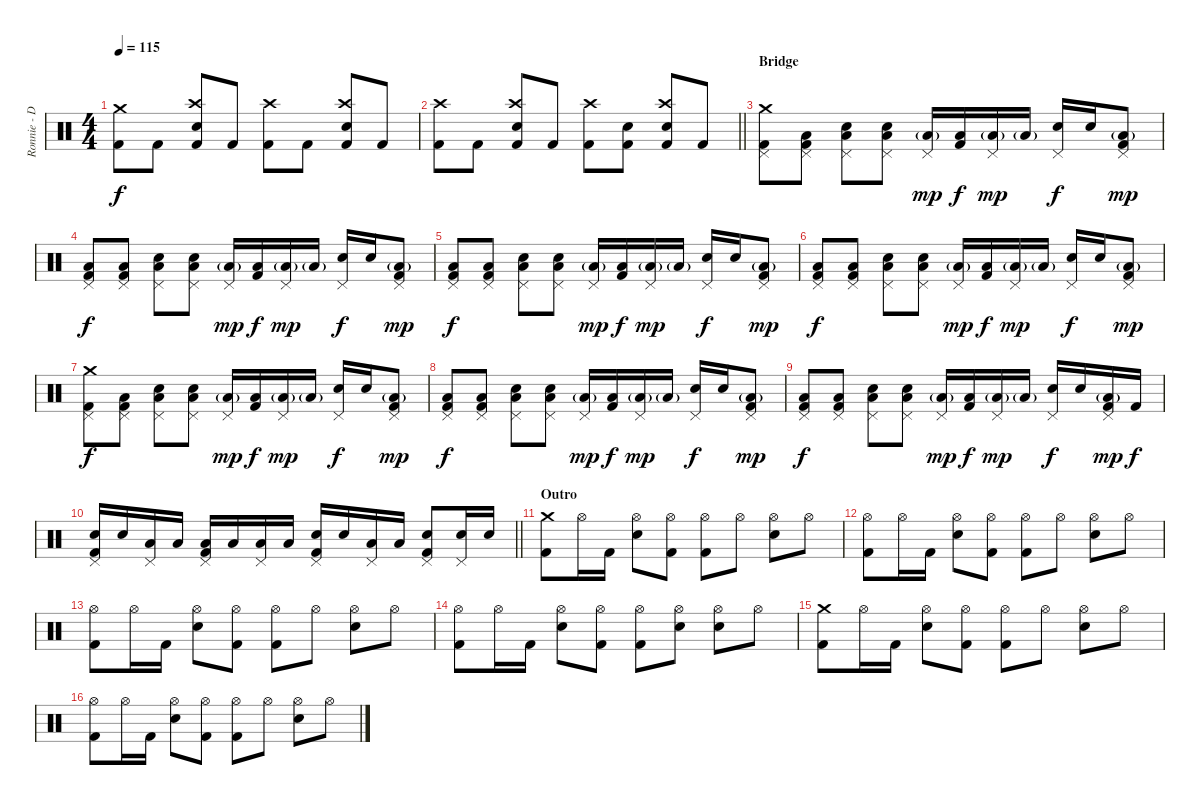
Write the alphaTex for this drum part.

\track ("Ronnie - Drums" "Ronnie - D") {instrument percussion}
\staff {score}
\articulation defaults
\ts (4 4)
\tempo 115
\clef neutral
\ks c
("Crash medium (hit)" "Kick (hit) 2").8{dy f} "Kick (hit) 2".8 ("Crash high (hit)" "Electric Snare (hit)" "Kick (hit) 2").8 "Kick (hit) 2".8 ("Crash high (hit)" "Kick (hit) 2").8 "Kick (hit) 2".8 ("Crash high (hit)" "Electric Snare (hit)" "Kick (hit) 2").8 "Kick (hit) 2".8 |
\barLineRight lightlight
("Crash high (hit)" "Kick (hit) 2").8 "Kick (hit) 2".8 ("Crash high (hit)" "Electric Snare (hit)" "Kick (hit) 2").8 "Kick (hit) 2".8 ("Crash high (hit)" "Kick (hit) 2").8 ("Electric Snare (hit)" "Kick (hit) 2").8 ("Crash high (hit)" "Electric Snare (hit)" "Kick (hit) 2").8 "Kick (hit) 2".8 |
\section ("" "Bridge")
("Pedal Hi-Hat (hit)" "Crash medium (hit)" "Kick (hit) 2").8 ("Pedal Hi-Hat (hit)" "Low Floor Tom (hit)" "Kick (hit) 2").8 ("Pedal Hi-Hat (hit)" "Low Floor Tom (hit)" "Electric Snare (hit)").8 ("Pedal Hi-Hat (hit)" "Low Floor Tom (hit)" "Electric Snare (hit)").8 ("Pedal Hi-Hat (hit)" "Low Floor Tom (hit)"{g}).16{dy mp} ("Low Tom (hit)" "Kick (hit) 2").16{dy f} ("Pedal Hi-Hat (hit)" "Low Tom (hit)"{g}).16{dy mp} "Low Tom (hit)"{g}.16 ("Pedal Hi-Hat (hit)" "Electric Snare (hit)").16{dy f} "Electric Snare (hit)".16 ("Pedal Hi-Hat (hit)" "Low Floor Tom (hit)"{g} "Kick (hit) 2").8{dy mp} |
("Pedal Hi-Hat (hit)" "Low Floor Tom (hit)" "Kick (hit) 2").8{dy f} ("Pedal Hi-Hat (hit)" "Low Floor Tom (hit)" "Kick (hit) 2").8 ("Pedal Hi-Hat (hit)" "Low Floor Tom (hit)" "Electric Snare (hit)").8 ("Pedal Hi-Hat (hit)" "Low Floor Tom (hit)" "Electric Snare (hit)").8 ("Pedal Hi-Hat (hit)" "Low Floor Tom (hit)"{g}).16{dy mp} ("Low Tom (hit)" "Kick (hit) 2").16{dy f} ("Pedal Hi-Hat (hit)" "Low Tom (hit)"{g}).16{dy mp} "Low Tom (hit)"{g}.16 ("Pedal Hi-Hat (hit)" "Electric Snare (hit)").16{dy f} "Electric Snare (hit)".16 ("Pedal Hi-Hat (hit)" "Low Floor Tom (hit)"{g} "Kick (hit) 2").8{dy mp} |
("Pedal Hi-Hat (hit)" "Low Floor Tom (hit)" "Kick (hit) 2").8{dy f} ("Pedal Hi-Hat (hit)" "Low Floor Tom (hit)" "Kick (hit) 2").8 ("Pedal Hi-Hat (hit)" "Low Floor Tom (hit)" "Electric Snare (hit)").8 ("Pedal Hi-Hat (hit)" "Low Floor Tom (hit)" "Electric Snare (hit)").8 ("Pedal Hi-Hat (hit)" "Low Floor Tom (hit)"{g}).16{dy mp} ("Low Tom (hit)" "Kick (hit) 2").16{dy f} ("Pedal Hi-Hat (hit)" "Low Tom (hit)"{g}).16{dy mp} "Low Tom (hit)"{g}.16 ("Pedal Hi-Hat (hit)" "Electric Snare (hit)").16{dy f} "Electric Snare (hit)".16 ("Pedal Hi-Hat (hit)" "Low Floor Tom (hit)"{g} "Kick (hit) 2").8{dy mp} |
("Pedal Hi-Hat (hit)" "Low Floor Tom (hit)" "Kick (hit) 2").8{dy f} ("Pedal Hi-Hat (hit)" "Low Floor Tom (hit)" "Kick (hit) 2").8 ("Pedal Hi-Hat (hit)" "Low Floor Tom (hit)" "Electric Snare (hit)").8 ("Pedal Hi-Hat (hit)" "Low Floor Tom (hit)" "Electric Snare (hit)").8 ("Pedal Hi-Hat (hit)" "Low Floor Tom (hit)"{g}).16{dy mp} ("Low Tom (hit)" "Kick (hit) 2").16{dy f} ("Pedal Hi-Hat (hit)" "Low Tom (hit)"{g}).16{dy mp} "Low Tom (hit)"{g}.16 ("Pedal Hi-Hat (hit)" "Electric Snare (hit)").16{dy f} "Electric Snare (hit)".16 ("Pedal Hi-Hat (hit)" "Low Floor Tom (hit)"{g} "Kick (hit) 2").8{dy mp} |
("Pedal Hi-Hat (hit)" "Crash medium (hit)" "Kick (hit) 2").8{dy f} ("Pedal Hi-Hat (hit)" "Low Floor Tom (hit)" "Kick (hit) 2").8 ("Pedal Hi-Hat (hit)" "Low Floor Tom (hit)" "Electric Snare (hit)").8 ("Pedal Hi-Hat (hit)" "Low Floor Tom (hit)" "Electric Snare (hit)").8 ("Pedal Hi-Hat (hit)" "Low Floor Tom (hit)"{g}).16{dy mp} ("Low Tom (hit)" "Kick (hit) 2").16{dy f} ("Pedal Hi-Hat (hit)" "Low Tom (hit)"{g}).16{dy mp} "Low Tom (hit)"{g}.16 ("Pedal Hi-Hat (hit)" "Electric Snare (hit)").16{dy f} "Electric Snare (hit)".16 ("Pedal Hi-Hat (hit)" "Low Floor Tom (hit)"{g} "Kick (hit) 2").8{dy mp} |
("Pedal Hi-Hat (hit)" "Low Floor Tom (hit)" "Kick (hit) 2").8{dy f} ("Pedal Hi-Hat (hit)" "Low Floor Tom (hit)" "Kick (hit) 2").8 ("Pedal Hi-Hat (hit)" "Low Floor Tom (hit)" "Electric Snare (hit)").8 ("Pedal Hi-Hat (hit)" "Low Floor Tom (hit)" "Electric Snare (hit)").8 ("Pedal Hi-Hat (hit)" "Low Floor Tom (hit)"{g}).16{dy mp} ("Low Tom (hit)" "Kick (hit) 2").16{dy f} ("Pedal Hi-Hat (hit)" "Low Tom (hit)"{g}).16{dy mp} "Low Tom (hit)"{g}.16 ("Pedal Hi-Hat (hit)" "Electric Snare (hit)").16{dy f} "Electric Snare (hit)".16 ("Pedal Hi-Hat (hit)" "Low Floor Tom (hit)"{g} "Kick (hit) 2").8{dy mp} |
("Pedal Hi-Hat (hit)" "Low Floor Tom (hit)" "Kick (hit) 2").8{dy f} ("Pedal Hi-Hat (hit)" "Low Floor Tom (hit)" "Kick (hit) 2").8 ("Pedal Hi-Hat (hit)" "Low Floor Tom (hit)" "Electric Snare (hit)").8 ("Pedal Hi-Hat (hit)" "Low Floor Tom (hit)" "Electric Snare (hit)").8 ("Pedal Hi-Hat (hit)" "Low Floor Tom (hit)"{g}).16{dy mp} ("Low Tom (hit)" "Kick (hit) 2").16{dy f} ("Pedal Hi-Hat (hit)" "Low Tom (hit)"{g}).16{dy mp} "Low Tom (hit)"{g}.16 ("Pedal Hi-Hat (hit)" "Electric Snare (hit)").16{dy f} "Electric Snare (hit)".16 ("Pedal Hi-Hat (hit)" "Low Floor Tom (hit)"{g} "Kick (hit) 2").16{dy mp} "Kick (hit) 2".16{dy f} |
\barLineRight lightlight
("Pedal Hi-Hat (hit)" "Electric Snare (hit)" "Kick (hit) 2").16 "Electric Snare (hit)".16 ("Pedal Hi-Hat (hit)" "Low Floor Tom (hit)").16 "Low Tom (hit)".16 ("Pedal Hi-Hat (hit)" "Low Floor Tom (hit)" "Kick (hit) 2").16 "Low Floor Tom (hit)".16 ("Pedal Hi-Hat (hit)" "Low Floor Tom (hit)").16 "Low Floor Tom (hit)".16 ("Pedal Hi-Hat (hit)" "Electric Snare (hit)" "Kick (hit) 2").16 "Electric Snare (hit)".16 ("Pedal Hi-Hat (hit)" "Low Floor Tom (hit)").16 "Low Floor Tom (hit)".16 ("Pedal Hi-Hat (hit)" "Electric Snare (hit)" "Kick (hit) 2").8 ("Pedal Hi-Hat (hit)" "Electric Snare (hit)").16 "Electric Snare (hit)".16 |
\section ("" "Outro")
("Crash medium (hit)" "Kick (hit) 2").8 "Hi-Hat (open)".16 "Kick (hit) 2".16 ("Hi-Hat (open)" "Electric Snare (hit)").8 ("Hi-Hat (open)" "Kick (hit) 2").8 ("Hi-Hat (open)" "Kick (hit) 2").8 "Hi-Hat (open)".8 ("Hi-Hat (open)" "Electric Snare (hit)").8 "Hi-Hat (open)".8 |
("Hi-Hat (open)" "Kick (hit) 2").8 "Hi-Hat (open)".16 "Kick (hit) 2".16 ("Hi-Hat (open)" "Electric Snare (hit)").8 ("Hi-Hat (open)" "Kick (hit) 2").8 ("Hi-Hat (open)" "Kick (hit) 2").8 "Hi-Hat (open)".8 ("Hi-Hat (open)" "Electric Snare (hit)").8 "Hi-Hat (open)".8 |
("Hi-Hat (open)" "Kick (hit) 2").8 "Hi-Hat (open)".16 "Kick (hit) 2".16 ("Hi-Hat (open)" "Electric Snare (hit)").8 ("Hi-Hat (open)" "Kick (hit) 2").8 ("Hi-Hat (open)" "Kick (hit) 2").8 "Hi-Hat (open)".8 ("Hi-Hat (open)" "Electric Snare (hit)").8 "Hi-Hat (open)".8 |
("Hi-Hat (open)" "Kick (hit) 2").8 "Hi-Hat (open)".16 "Kick (hit) 2".16 ("Hi-Hat (open)" "Electric Snare (hit)").8 ("Hi-Hat (open)" "Kick (hit) 2").8 ("Hi-Hat (open)" "Kick (hit) 2").8 ("Hi-Hat (open)" "Electric Snare (hit)").8 ("Hi-Hat (open)" "Electric Snare (hit)").8 "Hi-Hat (open)".8 |
("Crash medium (hit)" "Kick (hit) 2").8 "Hi-Hat (open)".16 "Kick (hit) 2".16 ("Hi-Hat (open)" "Electric Snare (hit)").8 ("Hi-Hat (open)" "Kick (hit) 2").8 ("Hi-Hat (open)" "Kick (hit) 2").8 "Hi-Hat (open)".8 ("Hi-Hat (open)" "Electric Snare (hit)").8 "Hi-Hat (open)".8 |
("Hi-Hat (open)" "Kick (hit) 2").8 "Hi-Hat (open)".16 "Kick (hit) 2".16 ("Hi-Hat (open)" "Electric Snare (hit)").8 ("Hi-Hat (open)" "Kick (hit) 2").8 ("Hi-Hat (open)" "Kick (hit) 2").8 "Hi-Hat (open)".8 ("Hi-Hat (open)" "Electric Snare (hit)").8 "Hi-Hat (open)".8
